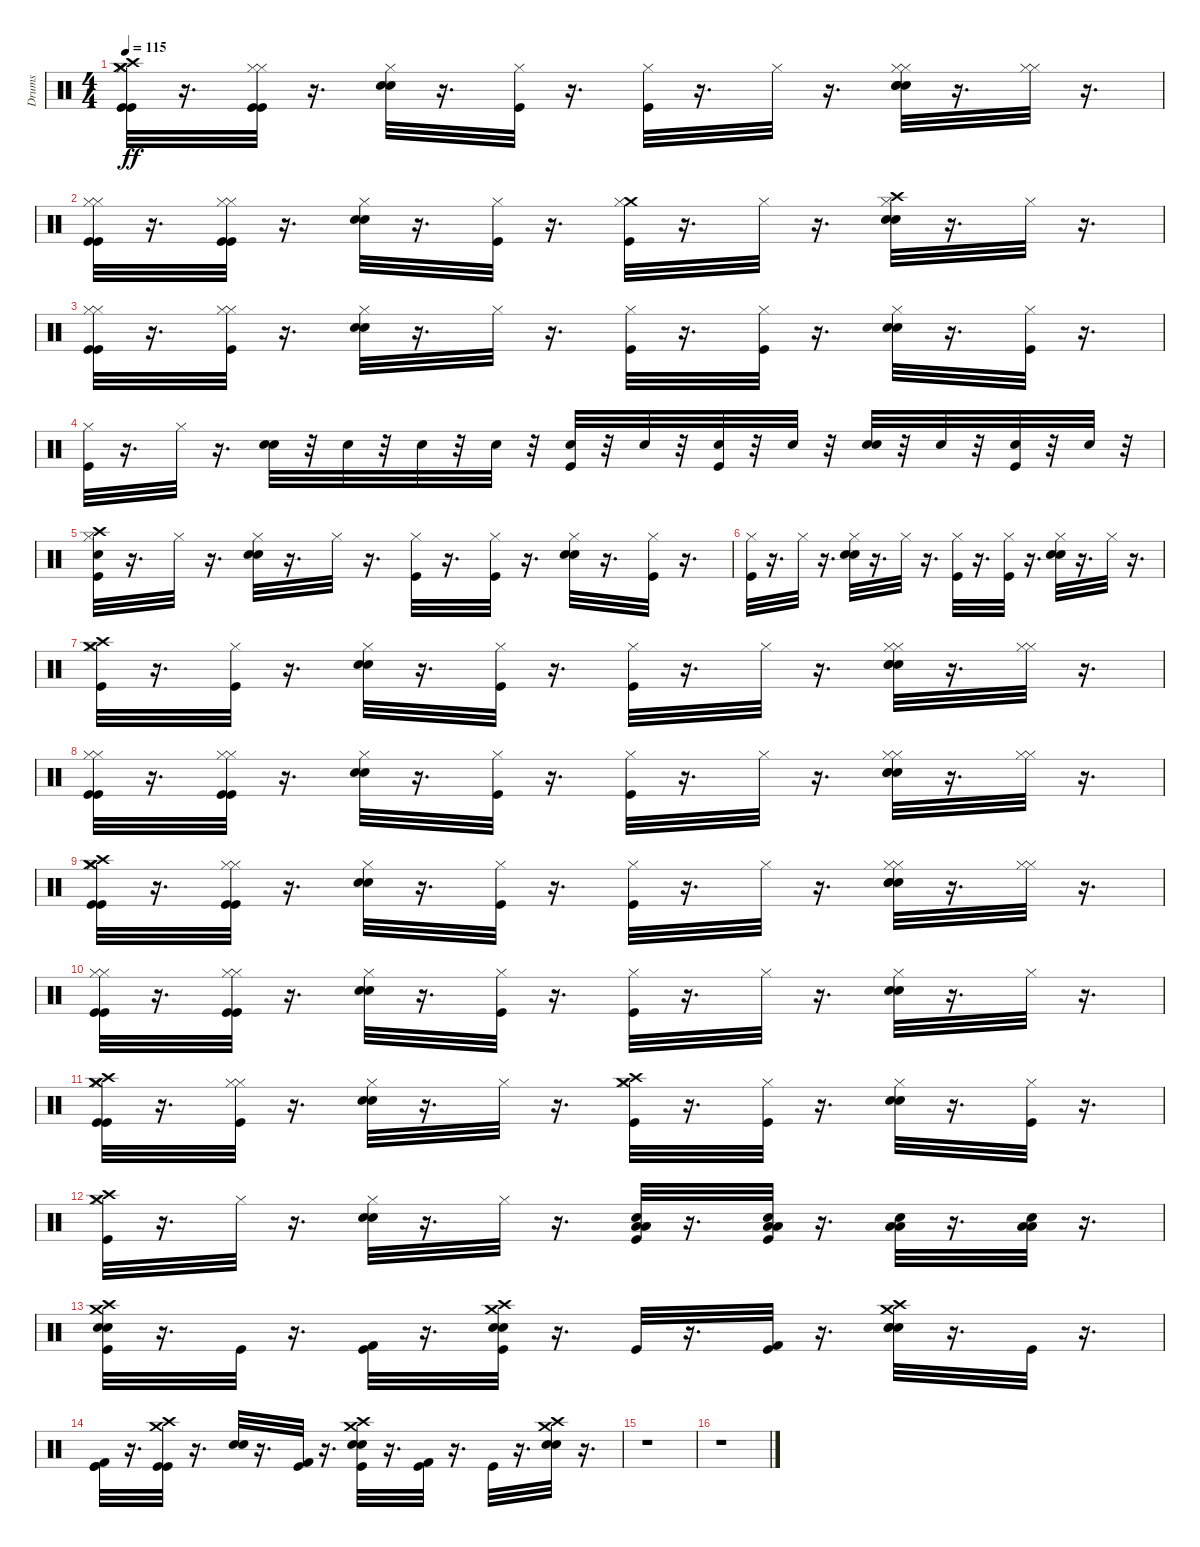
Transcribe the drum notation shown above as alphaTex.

\track ("Drums" "Drums") {instrument percussion}
\staff {score}
\articulation defaults
\ts (4 4)
\tempo 115
\clef neutral
\ks c
("Crash high (hit)" "Crash medium (hit)" "Kick (hit)" "Hi-Hat (closed)" "Kick (hit)" "Hi-Hat (closed)").32{dy ff} r.16{d} ("Kick (hit)" "Hi-Hat (closed)" "Kick (hit)" "Hi-Hat (closed)").32 r.16{d} ("Electric Snare (hit)" "Hi-Hat (closed)" "Snare (hit) 2").32 r.16{d} ("Kick (hit)" "Hi-Hat (closed)").32 r.16{d} ("Kick (hit)" "Hi-Hat (closed)").32 r.16{d} "Hi-Hat (closed)".32 r.16{d} ("Electric Snare (hit)" "Snare (hit) 2" "Hi-Hat (closed)" "Snare (hit) 2" "Hi-Hat (closed)").32 r.16{d} ("Hi-Hat (closed)" "Hi-Hat (closed)").32 r.16{d} |
("Kick (hit)" "Hi-Hat (closed)" "Kick (hit)" "Hi-Hat (closed)").32 r.16{d} ("Kick (hit)" "Hi-Hat (closed)" "Kick (hit)" "Hi-Hat (closed)").32 r.16{d} ("Electric Snare (hit)" "Hi-Hat (closed)" "Snare (hit) 2").32 r.16{d} ("Kick (hit)" "Hi-Hat (closed)").32 r.16{d} ("Crash medium (hit)" "Kick (hit)" "Hi-Hat (closed)").32 r.16{d} "Hi-Hat (closed)".32 r.16{d} ("Crash high (hit)" "Electric Snare (hit)" "Snare (hit) 2" "Hi-Hat (closed)").32 r.16{d} "Hi-Hat (closed)".32 r.16{d} |
("Kick (hit)" "Hi-Hat (closed)" "Kick (hit)" "Hi-Hat (closed)").32 r.16{d} ("Kick (hit)" "Hi-Hat (closed)" "Hi-Hat (closed)").32 r.16{d} ("Electric Snare (hit)" "Snare (hit) 2" "Hi-Hat (closed)").32 r.16{d} "Hi-Hat (closed)".32 r.16{d} ("Kick (hit)" "Hi-Hat (closed)").32 r.16{d} ("Kick (hit)" "Hi-Hat (closed)").32 r.16{d} ("Electric Snare (hit)" "Hi-Hat (closed)" "Snare (hit) 2").32 r.16{d} ("Kick (hit)" "Hi-Hat (closed)").32 r.16{d} |
("Kick (hit)" "Hi-Hat (closed)").32 r.16{d} "Hi-Hat (closed)".32 r.16{d} ("Electric Snare (hit)" "Snare (hit) 2").32 r.32 "Electric Snare (hit)".32 r.32 "Electric Snare (hit)".32 r.32 "Electric Snare (hit)".32 r.32 ("Electric Snare (hit)" "Kick (hit)").32 r.32 "Electric Snare (hit)".32 r.32 ("Electric Snare (hit)" "Kick (hit)").32 r.32 "Electric Snare (hit)".32 r.32 ("Electric Snare (hit)" "Snare (hit) 2").32 r.32 "Electric Snare (hit)".32 r.32 ("Electric Snare (hit)" "Kick (hit)").32 r.32 "Electric Snare (hit)".32 r.32 |
("Electric Snare (hit)" "Crash high (hit)" "Kick (hit)" "Hi-Hat (closed)").32 r.16{d} "Hi-Hat (closed)".32 r.16{d} ("Electric Snare (hit)" "Snare (hit) 2" "Hi-Hat (closed)").32 r.16{d} "Hi-Hat (closed)".32 r.16{d} ("Kick (hit)" "Hi-Hat (closed)").32 r.16{d} ("Kick (hit)" "Hi-Hat (closed)").32 r.16{d} ("Electric Snare (hit)" "Hi-Hat (closed)" "Snare (hit) 2").32 r.16{d} ("Kick (hit)" "Hi-Hat (closed)").32 r.16{d} |
("Kick (hit)" "Hi-Hat (closed)").32 r.16{d} "Hi-Hat (closed)".32 r.16{d} ("Electric Snare (hit)" "Snare (hit) 2" "Hi-Hat (closed)").32 r.16{d} "Hi-Hat (closed)".32 r.16{d} ("Kick (hit)" "Hi-Hat (closed)").32 r.16{d} ("Kick (hit)" "Hi-Hat (closed)").32 r.16{d} ("Electric Snare (hit)" "Snare (hit) 2" "Hi-Hat (closed)").32 r.16{d} "Hi-Hat (closed)".32 r.16{d} |
("Crash high (hit)" "Crash medium (hit)" "Kick (hit)" "Hi-Hat (closed)").32 r.16{d} ("Kick (hit)" "Hi-Hat (closed)").32 r.16{d} ("Electric Snare (hit)" "Hi-Hat (closed)" "Snare (hit) 2").32 r.16{d} ("Kick (hit)" "Hi-Hat (closed)").32 r.16{d} ("Kick (hit)" "Hi-Hat (closed)").32 r.16{d} "Hi-Hat (closed)".32 r.16{d} ("Electric Snare (hit)" "Snare (hit) 2" "Hi-Hat (closed)" "Snare (hit) 2" "Hi-Hat (closed)").32 r.16{d} ("Hi-Hat (closed)" "Hi-Hat (closed)").32 r.16{d} |
("Kick (hit)" "Hi-Hat (closed)" "Kick (hit)" "Hi-Hat (closed)").32 r.16{d} ("Kick (hit)" "Hi-Hat (closed)" "Kick (hit)" "Hi-Hat (closed)").32 r.16{d} ("Electric Snare (hit)" "Hi-Hat (closed)" "Snare (hit) 2").32 r.16{d} ("Kick (hit)" "Hi-Hat (closed)").32 r.16{d} ("Kick (hit)" "Hi-Hat (closed)").32 r.16{d} "Hi-Hat (closed)".32 r.16{d} ("Electric Snare (hit)" "Snare (hit) 2" "Hi-Hat (closed)" "Snare (hit) 2" "Hi-Hat (closed)").32 r.16{d} ("Hi-Hat (closed)" "Hi-Hat (closed)").32 r.16{d} |
("Crash high (hit)" "Crash medium (hit)" "Kick (hit)" "Hi-Hat (closed)" "Kick (hit)" "Hi-Hat (closed)").32 r.16{d} ("Kick (hit)" "Hi-Hat (closed)" "Kick (hit)" "Hi-Hat (closed)").32 r.16{d} ("Electric Snare (hit)" "Hi-Hat (closed)" "Snare (hit) 2").32 r.16{d} ("Kick (hit)" "Hi-Hat (closed)").32 r.16{d} ("Kick (hit)" "Hi-Hat (closed)").32 r.16{d} "Hi-Hat (closed)".32 r.16{d} ("Electric Snare (hit)" "Snare (hit) 2" "Hi-Hat (closed)" "Snare (hit) 2" "Hi-Hat (closed)").32 r.16{d} ("Hi-Hat (closed)" "Hi-Hat (closed)").32 r.16{d} |
("Kick (hit)" "Hi-Hat (closed)" "Kick (hit)" "Hi-Hat (closed)").32 r.16{d} ("Kick (hit)" "Hi-Hat (closed)" "Kick (hit)" "Hi-Hat (closed)").32 r.16{d} ("Electric Snare (hit)" "Hi-Hat (closed)" "Snare (hit) 2").32 r.16{d} ("Kick (hit)" "Hi-Hat (closed)").32 r.16{d} ("Kick (hit)" "Hi-Hat (closed)").32 r.16{d} "Hi-Hat (closed)".32 r.16{d} ("Electric Snare (hit)" "Snare (hit) 2" "Hi-Hat (closed)").32 r.16{d} "Hi-Hat (closed)".32 r.16{d} |
("Crash high (hit)" "Crash medium (hit)" "Kick (hit)" "Hi-Hat (closed)" "Kick (hit)" "Hi-Hat (closed)").32 r.16{d} ("Kick (hit)" "Hi-Hat (closed)" "Hi-Hat (closed)").32 r.16{d} ("Electric Snare (hit)" "Snare (hit) 2" "Hi-Hat (closed)").32 r.16{d} "Hi-Hat (closed)".32 r.16{d} ("Crash high (hit)" "Crash medium (hit)" "Kick (hit)" "Hi-Hat (closed)").32 r.16{d} ("Kick (hit)" "Hi-Hat (closed)").32 r.16{d} ("Electric Snare (hit)" "Hi-Hat (closed)" "Snare (hit) 2").32 r.16{d} ("Kick (hit)" "Hi-Hat (closed)").32 r.16{d} |
("Crash high (hit)" "Crash medium (hit)" "Kick (hit)" "Hi-Hat (closed)").32 r.16{d} "Hi-Hat (closed)".32 r.16{d} ("Electric Snare (hit)" "Snare (hit) 2" "Hi-Hat (closed)").32 r.16{d} "Hi-Hat (closed)".32 r.16{d} ("Snare (hit) 2" "Low Tom (hit)" "Low Floor Tom (hit)" "Kick (hit)").32 r.16{d} ("Snare (hit) 2" "Low Tom (hit)" "Low Floor Tom (hit)" "Kick (hit)").32 r.16{d} ("Snare (hit) 2" "Low Tom (hit)" "Low Floor Tom (hit)").32 r.16{d} ("Snare (hit) 2" "Low Tom (hit)" "Low Floor Tom (hit)").32 r.16{d} |
("Electric Snare (hit)" "Snare (hit) 2" "Crash high (hit)" "Crash medium (hit)" "Kick (hit)").32 r.16{d} "Kick (hit)".32 r.16{d} ("Kick (hit) 2" "Kick (hit)").32 r.16{d} ("Electric Snare (hit)" "Snare (hit) 2" "Crash high (hit)" "Crash medium (hit)" "Kick (hit)").32 r.16{d} "Kick (hit)".32 r.16{d} ("Kick (hit) 2" "Kick (hit)").32 r.16{d} ("Electric Snare (hit)" "Crash high (hit)" "Crash medium (hit)" "Snare (hit) 2" "Snare (hit) 2").32 r.16{d} "Kick (hit)".32 r.16{d} |
("Kick (hit) 2" "Kick (hit)" "Kick (hit)").32 r.16{d} ("Crash high (hit)" "Crash medium (hit)" "Kick (hit)" "Kick (hit)").32 r.16{d} ("Electric Snare (hit)" "Snare (hit) 2").32 r.16{d} ("Kick (hit) 2" "Kick (hit)").32 r.16{d} ("Snare (hit) 2" "Electric Snare (hit)" "Crash high (hit)" "Crash medium (hit)" "Kick (hit)").32 r.16{d} ("Kick (hit) 2" "Kick (hit)").32 r.16{d} "Kick (hit)".32 r.16{d} ("Snare (hit) 2" "Electric Snare (hit)" "Crash high (hit)" "Crash medium (hit)").32 r.16{d} |
r.1 |
r.1
